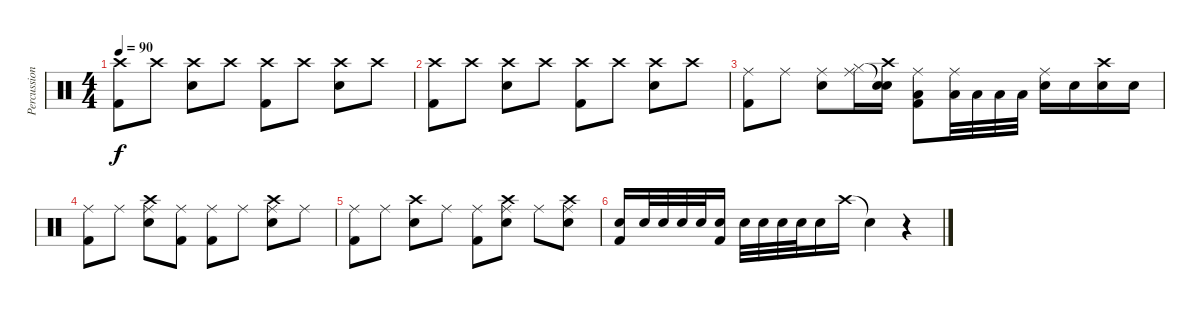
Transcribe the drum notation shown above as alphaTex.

\track ("Percussion" "Percussion") {instrument percussion}
\staff {score}
\articulation defaults
\ts (4 4)
\tempo 90
\clef neutral
\ks c
("Crash high (hit)" "Kick (hit) 2").8{dy f} "Crash high (hit)".8 ("Crash high (hit)" "Electric Snare (hit)").8 "Crash high (hit)".8 ("Crash high (hit)" "Kick (hit) 2").8 "Crash high (hit)".8 ("Crash high (hit)" "Electric Snare (hit)").8 "Crash high (hit)".8 |
("Crash high (hit)" "Kick (hit) 2").8 "Crash high (hit)".8 ("Crash high (hit)" "Electric Snare (hit)").8 "Crash high (hit)".8 ("Crash high (hit)" "Kick (hit) 2").8 "Crash high (hit)".8 ("Crash high (hit)" "Electric Snare (hit)").8 "Crash high (hit)".8 |
("Ride (middle)" "Kick (hit) 2").8 "Ride (middle)".8 ("Ride (middle)" "Electric Snare (hit)").8 ("Ride (middle)" "Hi-Hat (closed)").16 ("Crash high (hit)" "Snare (hit)"{t} "Snare (hit)").16 ("Ride (middle)" "Low Tom (hit)" "Kick (hit) 2").8 ("Ride (middle)" "Low Tom (hit)").32 "Low Tom (hit)".32 "Low Tom (hit)".32 "Low Tom (hit)".32 ("Ride (middle)" "Electric Snare (hit)").16 "Electric Snare (hit)".16 ("Crash high (hit)" "Electric Snare (hit)").16 "Electric Snare (hit)".16 |
("Ride (middle)" "Kick (hit) 2").8 "Ride (middle)".8 ("Crash high (hit)" "Ride (middle)" "Electric Snare (hit)").8 ("Ride (middle)" "Kick (hit) 2").8 ("Ride (middle)" "Kick (hit) 2").8 "Ride (middle)".8 ("Crash high (hit)" "Ride (middle)" "Electric Snare (hit)").8 "Ride (middle)".8 |
("Ride (middle)" "Kick (hit) 2").8 "Ride (middle)".8 ("Crash high (hit)" "Electric Snare (hit)").8 "Ride (middle)".8 ("Ride (middle)" "Kick (hit) 2").8 ("Crash high (hit)" "Ride (middle)" "Electric Snare (hit)").8 "Ride (middle)".8 ("Crash high (hit)" "Ride (middle)" "Electric Snare (hit)").8 |
("Electric Snare (hit)" "Kick (hit) 2").16 "Electric Snare (hit)".32 "Electric Snare (hit)".32 "Electric Snare (hit)".32 "Electric Snare (hit)".32 ("Electric Snare (hit)" "Kick (hit) 2").16 "Electric Snare (hit)".32 "Electric Snare (hit)".32 "Electric Snare (hit)".32 "Electric Snare (hit)".32 "Electric Snare (hit)".16 "Crash high (hit)".16 "Snare (hit)"{t}.4 r.4
